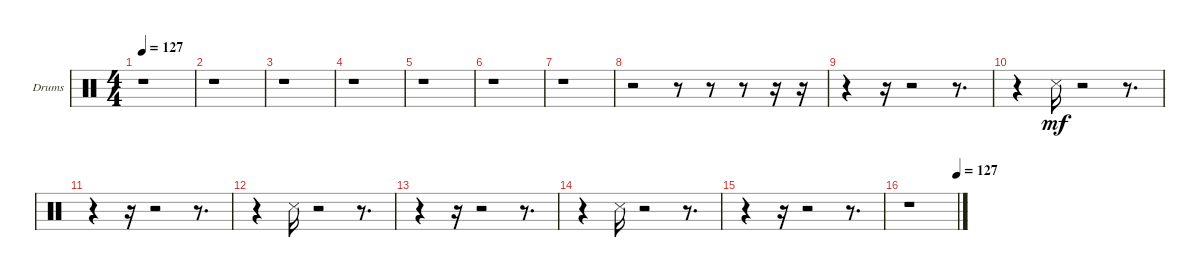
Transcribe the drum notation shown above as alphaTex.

\bracketExtendMode groupsimilarinstruments
\firstSystemTrackNameOrientation horizontal
\otherSystemsTrackNameOrientation horizontal
\track ("Drum Snare" "Drums") {instrument percussion}
\staff {score}
\articulation defaults
\ts (4 4)
\tempo 127
\clef neutral
\ks c
r.1{dy mf} |
r.1 |
r.1 |
r.1 |
r.1 |
r.1 |
r.1 |
r.2 r.8 r.8 r.8 r.16 r.16 |
r.4 r.16 r.2 r.8{d} |
r.4 "Snare (side stick) 3".16 r.2 r.8{d} |
r.4 r.16 r.2 r.8{d} |
r.4 "Snare (side stick) 3".16 r.2 r.8{d} |
r.4 r.16 r.2 r.8{d} |
r.4 "Snare (side stick) 3".16 r.2 r.8{d} |
r.4 r.16 r.2 r.8{d} |
\tempo (127 1)
r.1
